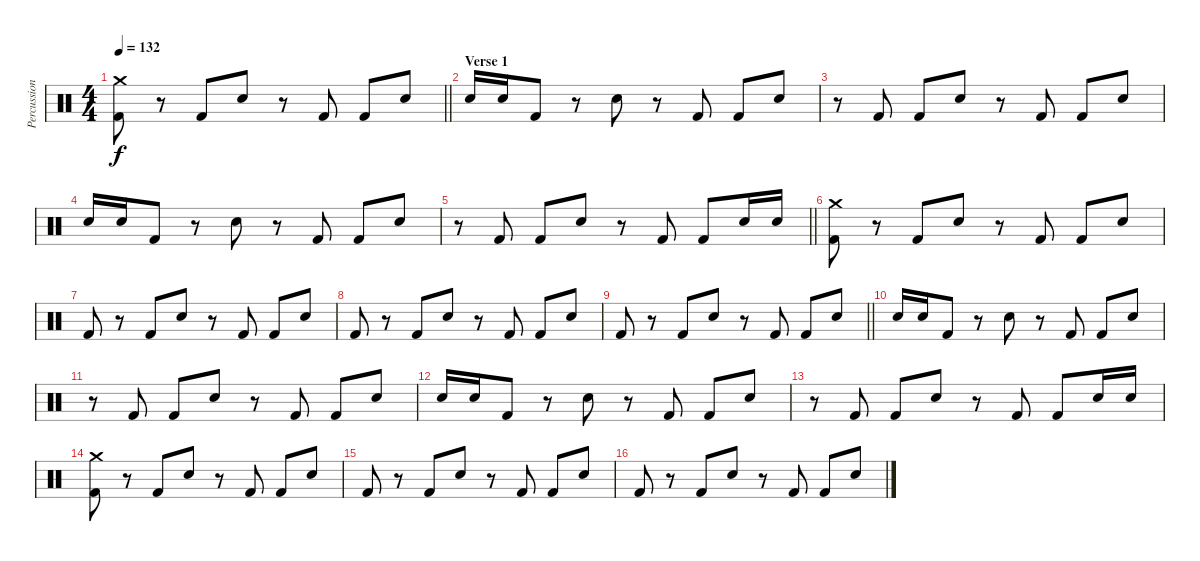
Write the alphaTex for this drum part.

\track ("Percussion" "Percussion") {instrument percussion}
\staff {score}
\articulation defaults
\ts (4 4)
\tempo 132
\clef neutral
\barLineRight lightlight
\ks c
("Crash medium (hit)" "Kick (hit) 2").8{dy f} r.8 "Kick (hit) 2".8 "Snare (hit) 2".8 r.8 "Kick (hit) 2".8 "Kick (hit) 2".8 "Snare (hit) 2".8 |
\section ("" "Verse 1")
"Snare (hit) 2".16 "Snare (hit) 2".16 "Kick (hit) 2".8 r.8 "Snare (hit) 2".8 r.8 "Kick (hit) 2".8 "Kick (hit) 2".8 "Snare (hit) 2".8 |
r.8 "Kick (hit) 2".8 "Kick (hit) 2".8 "Snare (hit) 2".8 r.8 "Kick (hit) 2".8 "Kick (hit) 2".8 "Snare (hit) 2".8 |
"Snare (hit) 2".16 "Snare (hit) 2".16 "Kick (hit) 2".8 r.8 "Snare (hit) 2".8 r.8 "Kick (hit) 2".8 "Kick (hit) 2".8 "Snare (hit) 2".8 |
\barLineRight lightlight
r.8 "Kick (hit) 2".8 "Kick (hit) 2".8 "Snare (hit) 2".8 r.8 "Kick (hit) 2".8 "Kick (hit) 2".8 "Snare (hit) 2".16 "Snare (hit) 2".16 |
("Crash medium (hit)" "Kick (hit) 2").8 r.8 "Kick (hit) 2".8 "Snare (hit) 2".8 r.8 "Kick (hit) 2".8 "Kick (hit) 2".8 "Snare (hit) 2".8 |
"Kick (hit) 2".8 r.8 "Kick (hit) 2".8 "Snare (hit) 2".8 r.8 "Kick (hit) 2".8 "Kick (hit) 2".8 "Snare (hit) 2".8 |
"Kick (hit) 2".8 r.8 "Kick (hit) 2".8 "Snare (hit) 2".8 r.8 "Kick (hit) 2".8 "Kick (hit) 2".8 "Snare (hit) 2".8 |
\barLineRight lightlight "Kick (hit) 2".8
r.8 "Kick (hit) 2".8 "Snare (hit) 2".8 r.8 "Kick (hit) 2".8 "Kick (hit) 2".8 "Snare (hit) 2".8 |
"Snare (hit) 2".16 "Snare (hit) 2".16 "Kick (hit) 2".8 r.8 "Snare (hit) 2".8 r.8 "Kick (hit) 2".8 "Kick (hit) 2".8 "Snare (hit) 2".8 |
r.8 "Kick (hit) 2".8 "Kick (hit) 2".8 "Snare (hit) 2".8 r.8 "Kick (hit) 2".8 "Kick (hit) 2".8 "Snare (hit) 2".8 |
"Snare (hit) 2".16 "Snare (hit) 2".16 "Kick (hit) 2".8 r.8 "Snare (hit) 2".8 r.8 "Kick (hit) 2".8 "Kick (hit) 2".8 "Snare (hit) 2".8 |
r.8 "Kick (hit) 2".8 "Kick (hit) 2".8 "Snare (hit) 2".8 r.8 "Kick (hit) 2".8 "Kick (hit) 2".8 "Snare (hit) 2".16 "Snare (hit) 2".16 |
("Crash medium (hit)" "Kick (hit) 2").8 r.8 "Kick (hit) 2".8 "Snare (hit) 2".8 r.8 "Kick (hit) 2".8 "Kick (hit) 2".8 "Snare (hit) 2".8 |
"Kick (hit) 2".8 r.8 "Kick (hit) 2".8 "Snare (hit) 2".8 r.8 "Kick (hit) 2".8 "Kick (hit) 2".8 "Snare (hit) 2".8 |
"Kick (hit) 2".8 r.8 "Kick (hit) 2".8 "Snare (hit) 2".8 r.8 "Kick (hit) 2".8 "Kick (hit) 2".8 "Snare (hit) 2".8
